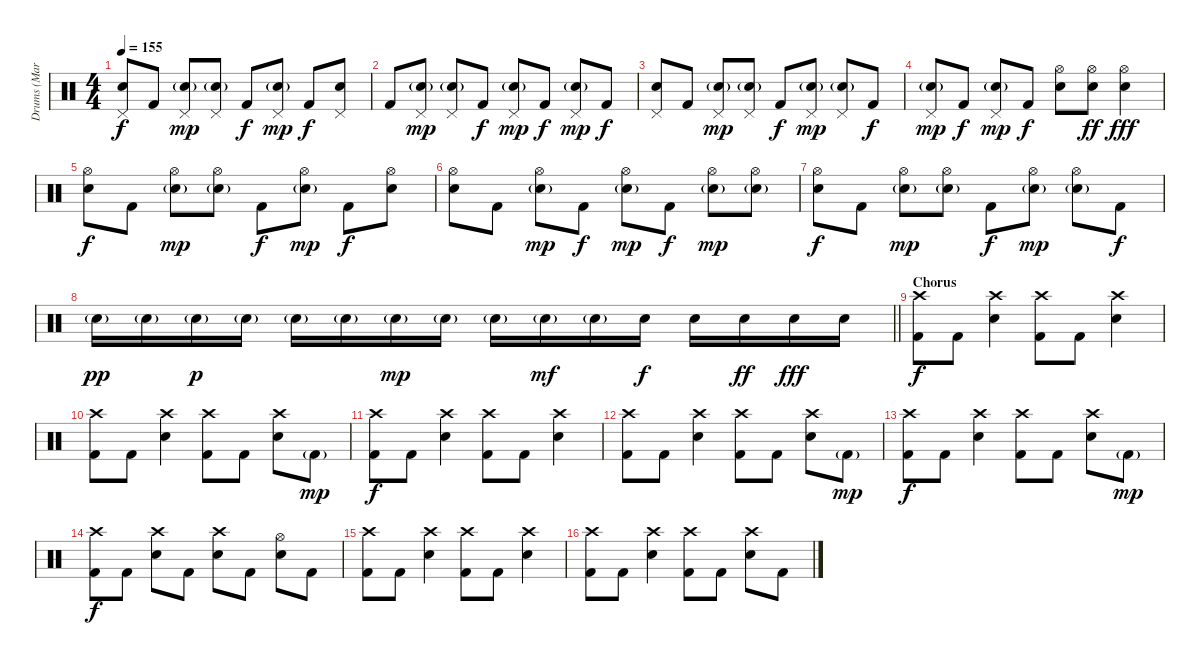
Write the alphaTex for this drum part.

\track ("Drums (Mark)" "Drums (Mar") {instrument percussion}
\staff {score}
\articulation defaults
\ts (4 4)
\tempo 155
\clef neutral
\ks c
("Pedal Hi-Hat (hit)" "Snare (hit) 2").8{dy f} "Kick (hit) 2".8 ("Pedal Hi-Hat (hit)" "Snare (hit) 2"{g}).8{dy mp} ("Pedal Hi-Hat (hit)" "Snare (hit) 2"{g}).8 "Kick (hit) 2".8{dy f} ("Pedal Hi-Hat (hit)" "Snare (hit) 2"{g}).8{dy mp} "Kick (hit) 2".8{dy f} ("Pedal Hi-Hat (hit)" "Snare (hit) 2").8 |
"Kick (hit) 2".8 ("Pedal Hi-Hat (hit)" "Snare (hit) 2"{g}).8{dy mp} ("Pedal Hi-Hat (hit)" "Snare (hit) 2"{g}).8 "Kick (hit) 2".8{dy f} ("Pedal Hi-Hat (hit)" "Snare (hit) 2"{g}).8{dy mp} "Kick (hit) 2".8{dy f} ("Pedal Hi-Hat (hit)" "Snare (hit) 2"{g}).8{dy mp} "Kick (hit) 2".8{dy f} |
("Pedal Hi-Hat (hit)" "Snare (hit) 2").8 "Kick (hit) 2".8 ("Pedal Hi-Hat (hit)" "Snare (hit) 2"{g}).8{dy mp} ("Pedal Hi-Hat (hit)" "Snare (hit) 2"{g}).8 "Kick (hit) 2".8{dy f} ("Pedal Hi-Hat (hit)" "Snare (hit) 2"{g}).8{dy mp} ("Pedal Hi-Hat (hit)" "Snare (hit) 2"{g}).8 "Kick (hit) 2".8{dy f} |
("Pedal Hi-Hat (hit)" "Snare (hit) 2"{g}).8{dy mp} "Kick (hit) 2".8{dy f} ("Pedal Hi-Hat (hit)" "Snare (hit) 2"{g}).8{dy mp} "Kick (hit) 2".8{dy f} ("Hi-Hat (open)" "Snare (hit) 2").8 ("Hi-Hat (open)" "Snare (hit) 2").8{dy ff} ("Hi-Hat (open)" "Snare (hit) 2").4{dy fff} |
("Hi-Hat (open)" "Snare (hit) 2").8{dy f} "Kick (hit) 2".8 ("Hi-Hat (open)" "Snare (hit) 2"{g}).8{dy mp} ("Hi-Hat (open)" "Snare (hit) 2"{g}).8 "Kick (hit) 2".8{dy f} ("Hi-Hat (open)" "Snare (hit) 2"{g}).8{dy mp} "Kick (hit) 2".8{dy f} ("Hi-Hat (open)" "Snare (hit) 2").8 |
("Hi-Hat (open)" "Snare (hit) 2").8 "Kick (hit) 2".8 ("Hi-Hat (open)" "Snare (hit) 2"{g}).8{dy mp} "Kick (hit) 2".8{dy f} ("Hi-Hat (open)" "Snare (hit) 2"{g}).8{dy mp} "Kick (hit) 2".8{dy f} ("Hi-Hat (open)" "Snare (hit) 2"{g}).8{dy mp} ("Hi-Hat (open)" "Snare (hit) 2"{g}).8 |
("Hi-Hat (open)" "Snare (hit) 2").8{dy f} "Kick (hit) 2".8 ("Hi-Hat (open)" "Snare (hit) 2"{g}).8{dy mp} ("Hi-Hat (open)" "Snare (hit) 2"{g}).8 "Kick (hit) 2".8{dy f} ("Hi-Hat (open)" "Snare (hit) 2"{g}).8{dy mp} ("Hi-Hat (open)" "Snare (hit) 2"{g}).8 "Kick (hit) 2".8{dy f} |
\barLineRight lightlight "Snare (hit) 2"{g}.16{dy pp} "Snare (hit) 2"{g}.16 "Snare (hit) 2"{g}.16{dy p} "Snare (hit) 2"{g}.16 "Snare (hit) 2"{g}.16 "Snare (hit) 2"{g}.16 "Snare (hit) 2"{g}.16{dy mp} "Snare (hit) 2"{g}.16 "Snare (hit) 2"{g}.16 "Snare (hit) 2"{g}.16{dy mf} "Snare (hit) 2"{g}.16 "Snare (hit) 2".16{dy f} "Snare (hit) 2".16 "Snare (hit) 2".16{dy ff} "Snare (hit) 2".16{dy fff} "Snare (hit) 2".16
|
\section ("" "Chorus")
("Crash high (hit)" "Kick (hit) 2").8{dy f} "Kick (hit) 2".8 ("Crash high (hit)" "Snare (hit) 2").4 ("Crash high (hit)" "Kick (hit) 2").8 "Kick (hit) 2".8 ("Crash high (hit)" "Snare (hit) 2").4 |
("Crash high (hit)" "Kick (hit) 2").8 "Kick (hit) 2".8 ("Crash high (hit)" "Snare (hit) 2").4 ("Crash high (hit)" "Kick (hit) 2").8 "Kick (hit) 2".8 ("Crash high (hit)" "Snare (hit) 2").8 "Kick (hit) 2"{g}.8{dy mp} |
("Crash high (hit)" "Kick (hit) 2").8{dy f} "Kick (hit) 2".8 ("Crash high (hit)" "Snare (hit) 2").4 ("Crash high (hit)" "Kick (hit) 2").8 "Kick (hit) 2".8 ("Crash high (hit)" "Snare (hit) 2").4 |
("Crash high (hit)" "Kick (hit) 2").8 "Kick (hit) 2".8 ("Crash high (hit)" "Snare (hit) 2").4 ("Crash high (hit)" "Kick (hit) 2").8 "Kick (hit) 2".8 ("Crash high (hit)" "Snare (hit) 2").8 "Kick (hit) 2"{g}.8{dy mp} |
("Crash high (hit)" "Kick (hit) 2").8{dy f} "Kick (hit) 2".8 ("Crash high (hit)" "Snare (hit) 2").4 ("Crash high (hit)" "Kick (hit) 2").8 "Kick (hit) 2".8 ("Crash high (hit)" "Snare (hit) 2").8 "Kick (hit) 2"{g}.8{dy mp} |
("Crash high (hit)" "Kick (hit) 2").8{dy f} "Kick (hit) 2".8 ("Crash high (hit)" "Snare (hit) 2").8 "Kick (hit) 2".8 ("Crash high (hit)" "Snare (hit) 2").8 "Kick (hit) 2".8 ("Hi-Hat (open)" "Snare (hit) 2").8 "Kick (hit) 2".8 |
("Crash high (hit)" "Kick (hit) 2").8 "Kick (hit) 2".8 ("Crash high (hit)" "Snare (hit) 2").4 ("Crash high (hit)" "Kick (hit) 2").8 "Kick (hit) 2".8 ("Crash high (hit)" "Snare (hit) 2").4 |
("Crash high (hit)" "Kick (hit) 2").8 "Kick (hit) 2".8 ("Crash high (hit)" "Snare (hit) 2").4 ("Crash high (hit)" "Kick (hit) 2").8 "Kick (hit) 2".8 ("Crash high (hit)" "Snare (hit) 2").8 "Kick (hit) 2".8
